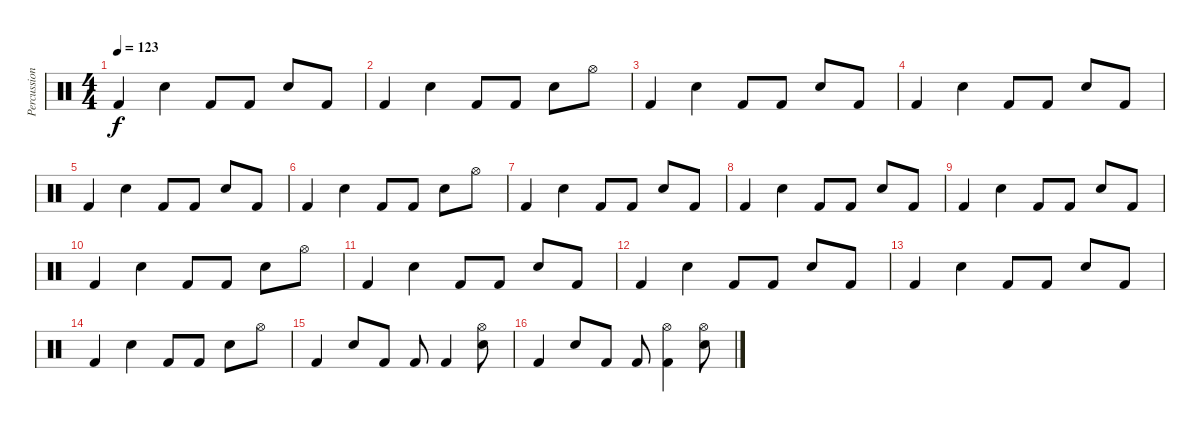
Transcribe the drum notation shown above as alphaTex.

\track ("Percussions" "Percussion") {instrument percussion}
\staff {score}
\articulation defaults
\ts (4 4)
\tempo 123
\clef neutral
\ks c "Kick (hit) 2".4{dy f} "Snare (hit) 2".4 "Kick (hit) 2".8 "Kick (hit) 2".8 "Snare (hit) 2".8 "Kick (hit) 2".8
|
"Kick (hit) 2".4 "Snare (hit) 2".4 "Kick (hit) 2".8 "Kick (hit) 2".8 "Snare (hit) 2".8 "Hi-Hat (open)".8 |
"Kick (hit) 2".4 "Snare (hit) 2".4 "Kick (hit) 2".8 "Kick (hit) 2".8 "Snare (hit) 2".8 "Kick (hit) 2".8 |
"Kick (hit) 2".4 "Snare (hit) 2".4 "Kick (hit) 2".8 "Kick (hit) 2".8 "Snare (hit) 2".8 "Kick (hit) 2".8 |
"Kick (hit) 2".4 "Snare (hit) 2".4 "Kick (hit) 2".8 "Kick (hit) 2".8 "Snare (hit) 2".8 "Kick (hit) 2".8 |
"Kick (hit) 2".4 "Snare (hit) 2".4 "Kick (hit) 2".8 "Kick (hit) 2".8 "Snare (hit) 2".8 "Hi-Hat (open)".8 |
"Kick (hit) 2".4 "Snare (hit) 2".4 "Kick (hit) 2".8 "Kick (hit) 2".8 "Snare (hit) 2".8 "Kick (hit) 2".8 |
"Kick (hit) 2".4 "Snare (hit) 2".4 "Kick (hit) 2".8 "Kick (hit) 2".8 "Snare (hit) 2".8 "Kick (hit) 2".8 |
"Kick (hit) 2".4 "Snare (hit) 2".4 "Kick (hit) 2".8 "Kick (hit) 2".8 "Snare (hit) 2".8 "Kick (hit) 2".8 |
"Kick (hit) 2".4 "Snare (hit) 2".4 "Kick (hit) 2".8 "Kick (hit) 2".8 "Snare (hit) 2".8 "Hi-Hat (open)".8 |
"Kick (hit) 2".4 "Snare (hit) 2".4 "Kick (hit) 2".8 "Kick (hit) 2".8 "Snare (hit) 2".8 "Kick (hit) 2".8 |
"Kick (hit) 2".4 "Snare (hit) 2".4 "Kick (hit) 2".8 "Kick (hit) 2".8 "Snare (hit) 2".8 "Kick (hit) 2".8 |
"Kick (hit) 2".4 "Snare (hit) 2".4 "Kick (hit) 2".8 "Kick (hit) 2".8 "Snare (hit) 2".8 "Kick (hit) 2".8 |
"Kick (hit) 2".4 "Snare (hit) 2".4 "Kick (hit) 2".8 "Kick (hit) 2".8 "Snare (hit) 2".8 "Hi-Hat (open)".8 |
"Kick (hit) 2".4 "Snare (hit) 2".8 "Kick (hit) 2".8 "Kick (hit) 2".8 "Kick (hit) 2".4 ("Snare (hit) 2" "Hi-Hat (open)").8 |
"Kick (hit) 2".4 "Snare (hit) 2".8 "Kick (hit) 2".8 "Kick (hit) 2".8 ("Hi-Hat (open)" "Kick (hit) 2").4 ("Snare (hit) 2" "Hi-Hat (open)").8
